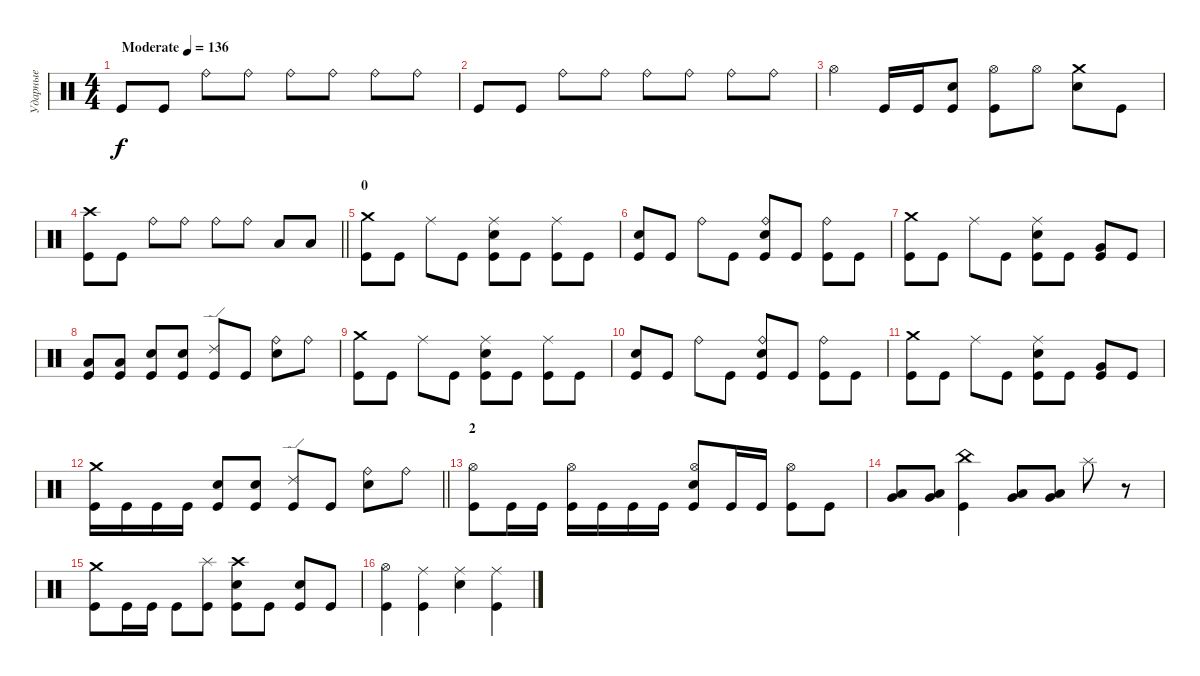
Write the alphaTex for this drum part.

\track ("Ударные" "Ударные") {instrument percussion}
\staff {score}
\articulation defaults
\ts (4 4)
\tempo (136 "Moderate")
\clef neutral
\ks c "Kick (hit)".8{dy f} "Kick (hit)".8 "Ride (bell)".8 "Ride (bell)".8 "Ride (bell)".8 "Ride (bell)".8 "Ride (bell)".8 "Ride (bell)".8
|
"Kick (hit)".8 "Kick (hit)".8 "Ride (bell)".8 "Ride (bell)".8 "Ride (bell)".8 "Ride (bell)".8 "Ride (bell)".8 "Ride (bell)".8 |
"Hi-Hat (open)".4 "Kick (hit)".16 "Kick (hit)".16 ("Electric Snare (hit)" "Kick (hit)").8 ("Hi-Hat (open)" "Kick (hit)").8 "Hi-Hat (open)".8 ("Crash medium (hit)" "Electric Snare (hit)").8 "Kick (hit)".8 |
\barLineRight lightlight
("Kick (hit)" "Crash high (hit)").8 "Kick (hit)".8 "Ride (bell)".8 "Ride (bell)".8 "Ride (bell)".8 "Ride (bell)".8 "Low Tom (hit)".8 "Low Tom (hit)".8 |
\section ("" "0")
("Crash medium (hit)" "Kick (hit)").8 "Kick (hit)".8 "Ride (middle)".8 "Kick (hit)".8 ("Ride (middle)" "Kick (hit)" "Electric Snare (hit)").8 "Kick (hit)".8 ("Ride (middle)" "Kick (hit)").8 "Kick (hit)".8 |
("Kick (hit)" "Electric Snare (hit)").8 "Kick (hit)".8 "Ride (bell)".8 "Kick (hit)".8 ("Electric Snare (hit)" "Kick (hit)" "Ride (bell)").8 "Kick (hit)".8 ("Ride (bell)" "Kick (hit)").8 "Kick (hit)".8 |
("Crash medium (hit)" "Kick (hit)").8 "Kick (hit)".8 "Ride (middle)".8 "Kick (hit)".8 ("Ride (middle)" "Kick (hit)" "Electric Snare (hit)").8 "Kick (hit)".8 ("Very Low Tom (hit)" "Kick (hit)").8 "Kick (hit)".8 |
("Low Floor Tom (hit)" "Kick (hit)").8 ("Low Floor Tom (hit)" "Kick (hit)").8 ("Electric Snare (hit)" "Kick (hit)").8 ("Electric Snare (hit)" "Kick (hit)").8 ("Ride (edge) 2" "Kick (hit)").8 "Kick (hit)".8 ("Electric Snare (hit)" "Ride (bell)").8 "Ride (bell)".8 |
("Crash medium (hit)" "Kick (hit)").8 "Kick (hit)".8 "Ride (middle)".8 "Kick (hit)".8 ("Ride (middle)" "Kick (hit)" "Electric Snare (hit)").8 "Kick (hit)".8 ("Ride (middle)" "Kick (hit)").8 "Kick (hit)".8 |
("Kick (hit)" "Electric Snare (hit)").8 "Kick (hit)".8 "Ride (bell)".8 "Kick (hit)".8 ("Electric Snare (hit)" "Kick (hit)" "Ride (bell)").8 "Kick (hit)".8 ("Ride (bell)" "Kick (hit)").8 "Kick (hit)".8 |
("Crash medium (hit)" "Kick (hit)").8 "Kick (hit)".8 "Ride (middle)".8 "Kick (hit)".8 ("Ride (middle)" "Kick (hit)" "Electric Snare (hit)").8 "Kick (hit)".8 ("Very Low Tom (hit)" "Kick (hit)").8 "Kick (hit)".8 |
\barLineRight lightlight
("Crash medium (hit)" "Kick (hit)").16 "Kick (hit)".16 "Kick (hit)".16 "Kick (hit)".16 ("Electric Snare (hit)" "Kick (hit)").8 ("Electric Snare (hit)" "Kick (hit)").8 ("Ride (edge) 2" "Kick (hit)").8 "Kick (hit)".8 ("Electric Snare (hit)" "Ride (bell)").8 "Ride (bell)".8 |
\section ("" "2")
("Kick (hit)" "Hi-Hat (open)").8 "Kick (hit)".16 "Kick (hit)".16 ("Kick (hit)" "Hi-Hat (open)").16 "Kick (hit)".16 "Kick (hit)".16 "Kick (hit)".16 ("Kick (hit)" "Electric Snare (hit)" "Hi-Hat (open)").8 "Kick (hit)".16 "Kick (hit)".16 ("Kick (hit)" "Hi-Hat (open)").8 "Kick (hit)".8 |
("Very Low Tom (hit)" "Low Tom (hit)").8 ("Very Low Tom (hit)" "Low Tom (hit)").8 ("China (hit)" "Kick (hit)").4 ("Very Low Tom (hit)" "Low Tom (hit)").8 ("Very Low Tom (hit)" "Low Tom (hit)").8 "Splash (hit)".8 r.8 |
("Kick (hit)" "Crash medium (hit)").8 "Kick (hit)".16 "Kick (hit)".16 "Kick (hit)".8 ("Splash (hit)" "Kick (hit)").8 ("Crash high (hit)" "Electric Snare (hit)" "Kick (hit)").8 "Kick (hit)".8 ("Kick (hit)" "Electric Snare (hit)").8 "Kick (hit)".8 |
("Hi-Hat (open)" "Kick (hit)").4 ("Ride (middle)" "Kick (hit)").4 ("Ride (middle)" "Electric Snare (hit)").4 ("Ride (middle)" "Kick (hit)").4
